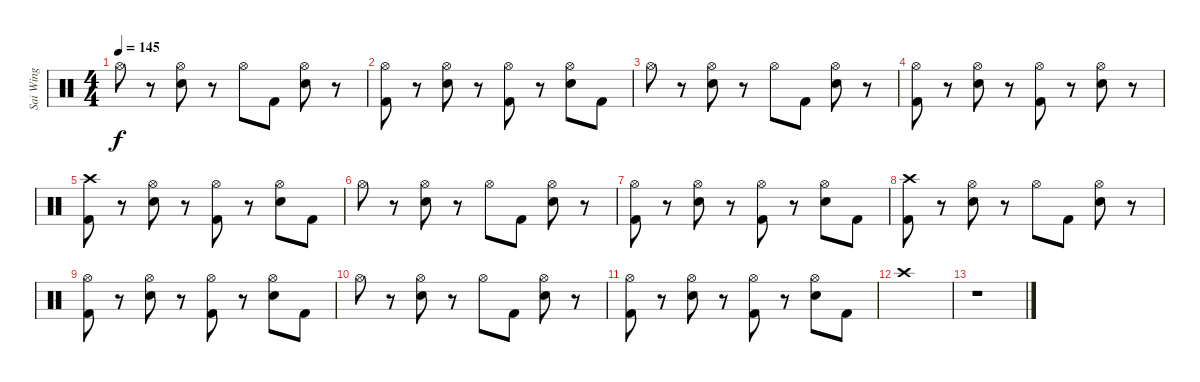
\track ("Sai Wing" "Sai Wing") {instrument percussion}
\staff {score}
\articulation defaults
\ts (4 4)
\tempo 145
\clef neutral
\ks c "Hi-Hat (open)".8{dy f}
r.8 ("Hi-Hat (open)" "Snare (hit) 2").8 r.8 "Hi-Hat (open)".8 "Kick (hit) 2".8 ("Hi-Hat (open)" "Snare (hit) 2").8 r.8 |
("Hi-Hat (open)" "Kick (hit) 2").8 r.8 ("Hi-Hat (open)" "Snare (hit) 2").8 r.8 ("Hi-Hat (open)" "Kick (hit) 2").8 r.8 ("Hi-Hat (open)" "Snare (hit) 2").8 "Kick (hit) 2".8 |
"Hi-Hat (open)".8 r.8 ("Hi-Hat (open)" "Snare (hit) 2").8 r.8 "Hi-Hat (open)".8 "Kick (hit) 2".8 ("Hi-Hat (open)" "Snare (hit) 2").8 r.8 |
("Hi-Hat (open)" "Kick (hit) 2").8 r.8 ("Hi-Hat (open)" "Snare (hit) 2").8 r.8 ("Hi-Hat (open)" "Kick (hit) 2").8 r.8 ("Hi-Hat (open)" "Snare (hit) 2").8 r.8 |
("Crash high (hit)" "Kick (hit) 2").8 r.8 ("Hi-Hat (open)" "Snare (hit) 2").8 r.8 ("Hi-Hat (open)" "Kick (hit) 2").8 r.8 ("Hi-Hat (open)" "Snare (hit) 2").8 "Kick (hit) 2".8 |
"Hi-Hat (open)".8 r.8 ("Hi-Hat (open)" "Snare (hit) 2").8 r.8 "Hi-Hat (open)".8 "Kick (hit) 2".8 ("Hi-Hat (open)" "Snare (hit) 2").8 r.8 |
("Hi-Hat (open)" "Kick (hit) 2").8 r.8 ("Hi-Hat (open)" "Snare (hit) 2").8 r.8 ("Hi-Hat (open)" "Kick (hit) 2").8 r.8 ("Hi-Hat (open)" "Snare (hit) 2").8 "Kick (hit) 2".8 |
("Crash high (hit)" "Kick (hit) 2").8 r.8 ("Hi-Hat (open)" "Snare (hit) 2").8 r.8 "Hi-Hat (open)".8 "Kick (hit) 2".8 ("Hi-Hat (open)" "Snare (hit) 2").8 r.8 |
("Hi-Hat (open)" "Kick (hit) 2").8 r.8 ("Hi-Hat (open)" "Snare (hit) 2").8 r.8 ("Hi-Hat (open)" "Kick (hit) 2").8 r.8 ("Hi-Hat (open)" "Snare (hit) 2").8 "Kick (hit) 2".8 |
"Hi-Hat (open)".8 r.8 ("Hi-Hat (open)" "Snare (hit) 2").8 r.8 "Hi-Hat (open)".8 "Kick (hit) 2".8 ("Hi-Hat (open)" "Snare (hit) 2").8 r.8 |
("Hi-Hat (open)" "Kick (hit) 2").8 r.8 ("Hi-Hat (open)" "Snare (hit) 2").8 r.8 ("Hi-Hat (open)" "Kick (hit) 2").8 r.8 ("Hi-Hat (open)" "Snare (hit) 2").8 "Kick (hit) 2".8 |
"Crash high (hit)".1 |
r.1
